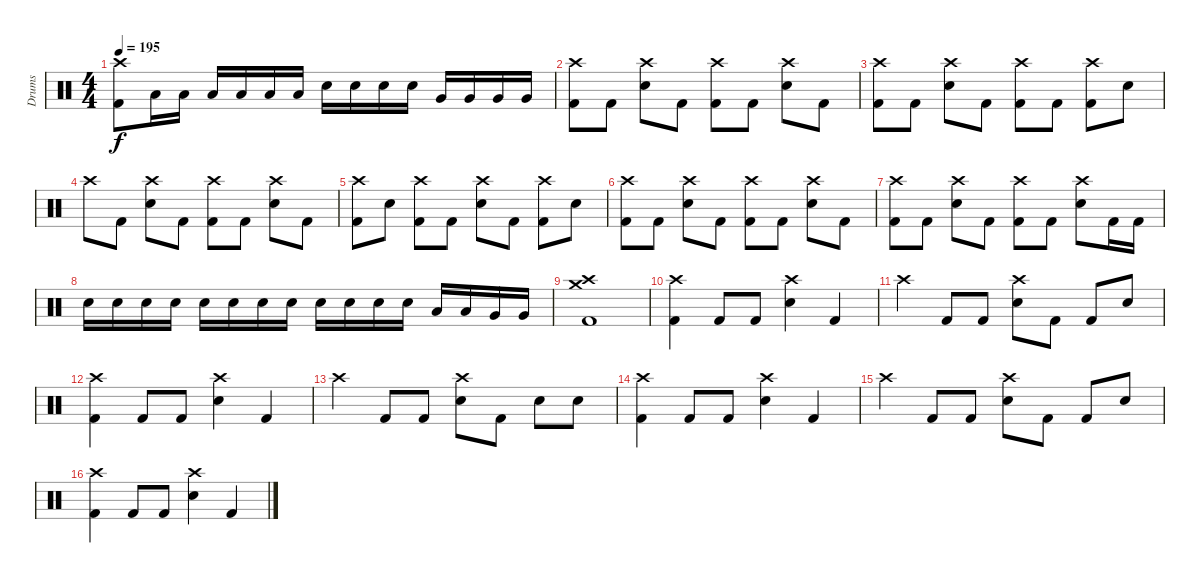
\track ("Drums" "Drums") {instrument percussion}
\staff {score}
\articulation defaults
\ts (4 4)
\tempo 195
\clef neutral
\ks c
("Crash high (hit)" "Kick (hit) 2").8{dy f} "Low Tom (hit)".16 "Low Tom (hit)".16 "Low Tom (hit)".16 "Low Tom (hit)".16 "Low Tom (hit)".16 "Low Tom (hit)".16 "Electric Snare (hit)".16 "Electric Snare (hit)".16 "Electric Snare (hit)".16 "Electric Snare (hit)".16 "Very Low Tom (hit)".16 "Very Low Tom (hit)".16 "Very Low Tom (hit)".16 "Very Low Tom (hit)".16 |
("Crash high (hit)" "Kick (hit) 2").8 "Kick (hit) 2".8 ("Crash high (hit)" "Electric Snare (hit)").8 "Kick (hit) 2".8 ("Crash high (hit)" "Kick (hit) 2").8 "Kick (hit) 2".8 ("Crash high (hit)" "Electric Snare (hit)").8 "Kick (hit) 2".8 |
("Crash high (hit)" "Kick (hit) 2").8 "Kick (hit) 2".8 ("Crash high (hit)" "Electric Snare (hit)").8 "Kick (hit) 2".8 ("Crash high (hit)" "Kick (hit) 2").8 "Kick (hit) 2".8 ("Crash high (hit)" "Kick (hit) 2").8 "Electric Snare (hit)".8 |
"Crash high (hit)".8 "Kick (hit) 2".8 ("Crash high (hit)" "Electric Snare (hit)").8 "Kick (hit) 2".8 ("Crash high (hit)" "Kick (hit) 2").8 "Kick (hit) 2".8 ("Crash high (hit)" "Electric Snare (hit)").8 "Kick (hit) 2".8 |
("Crash high (hit)" "Kick (hit) 2").8 "Electric Snare (hit)".8 ("Crash high (hit)" "Kick (hit) 2").8 "Kick (hit) 2".8 ("Crash high (hit)" "Electric Snare (hit)").8 "Kick (hit) 2".8 ("Crash high (hit)" "Kick (hit) 2").8 "Electric Snare (hit)".8 |
("Crash high (hit)" "Kick (hit) 2").8 "Kick (hit) 2".8 ("Crash high (hit)" "Electric Snare (hit)").8 "Kick (hit) 2".8 ("Crash high (hit)" "Kick (hit) 2").8 "Kick (hit) 2".8 ("Crash high (hit)" "Electric Snare (hit)").8 "Kick (hit) 2".8 |
("Crash high (hit)" "Kick (hit) 2").8 "Kick (hit) 2".8 ("Crash high (hit)" "Electric Snare (hit)").8 "Kick (hit) 2".8 ("Crash high (hit)" "Kick (hit) 2").8 "Kick (hit) 2".8 ("Crash high (hit)" "Electric Snare (hit)").8 "Kick (hit) 2".16 "Kick (hit) 2".16 |
"Electric Snare (hit)".16 "Electric Snare (hit)".16 "Electric Snare (hit)".16 "Electric Snare (hit)".16 "Electric Snare (hit)".16 "Electric Snare (hit)".16 "Electric Snare (hit)".16 "Electric Snare (hit)".16 "Electric Snare (hit)".16 "Electric Snare (hit)".16 "Electric Snare (hit)".16 "Electric Snare (hit)".16 "Low Tom (hit)".16 "Low Tom (hit)".16 "Very Low Tom (hit)".16 "Very Low Tom (hit)".16 |
("Crash high (hit)" "Crash medium (hit)" "Kick (hit) 2").1 |
("Crash high (hit)" "Kick (hit) 2").4 "Kick (hit) 2".8 "Kick (hit) 2".8 ("Crash high (hit)" "Electric Snare (hit)").4 "Kick (hit) 2".4 |
"Crash high (hit)".4 "Kick (hit) 2".8 "Kick (hit) 2".8 ("Crash high (hit)" "Electric Snare (hit)").8 "Kick (hit) 2".8 "Kick (hit) 2".8 "Electric Snare (hit)".8 |
("Crash high (hit)" "Kick (hit) 2").4 "Kick (hit) 2".8 "Kick (hit) 2".8 ("Crash high (hit)" "Electric Snare (hit)").4 "Kick (hit) 2".4 |
"Crash high (hit)".4 "Kick (hit) 2".8 "Kick (hit) 2".8 ("Crash high (hit)" "Electric Snare (hit)").8 "Kick (hit) 2".8 "Electric Snare (hit)".8 "Electric Snare (hit)".8 |
("Crash high (hit)" "Kick (hit) 2").4 "Kick (hit) 2".8 "Kick (hit) 2".8 ("Crash high (hit)" "Electric Snare (hit)").4 "Kick (hit) 2".4 |
"Crash high (hit)".4 "Kick (hit) 2".8 "Kick (hit) 2".8 ("Crash high (hit)" "Electric Snare (hit)").8 "Kick (hit) 2".8 "Kick (hit) 2".8 "Electric Snare (hit)".8 |
("Crash high (hit)" "Kick (hit) 2").4 "Kick (hit) 2".8 "Kick (hit) 2".8 ("Crash high (hit)" "Electric Snare (hit)").4 "Kick (hit) 2".4
